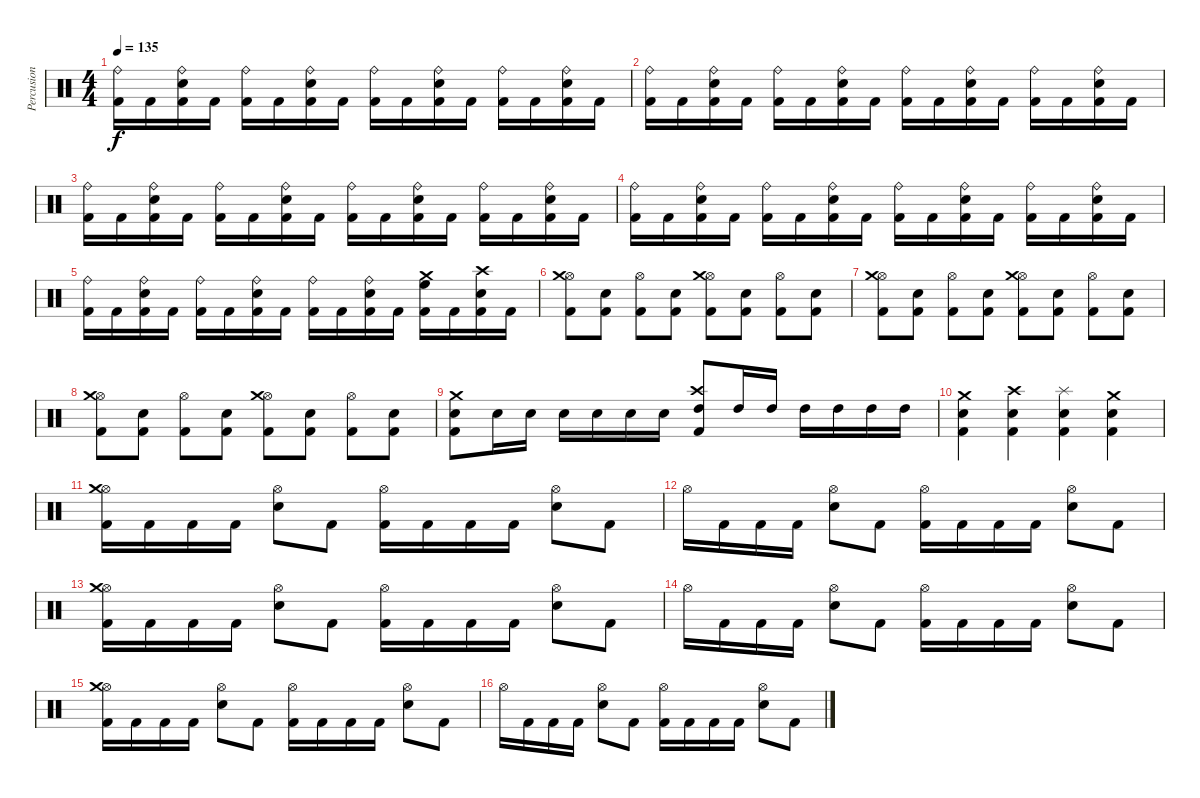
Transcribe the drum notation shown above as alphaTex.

\track ("Percusion" "Percusion") {instrument percussion}
\staff {score}
\articulation defaults
\ts (4 4)
\tempo 135
\clef neutral
\ks c
("Ride (bell)" "Kick (hit) 2").16{dy f} "Kick (hit) 2".16 ("Ride (bell)" "Snare (hit) 2" "Kick (hit) 2").16 "Kick (hit) 2".16 ("Ride (bell)" "Kick (hit) 2").16 "Kick (hit) 2".16 ("Ride (bell)" "Snare (hit) 2" "Kick (hit) 2").16 "Kick (hit) 2".16 ("Ride (bell)" "Kick (hit) 2").16 "Kick (hit) 2".16 ("Ride (bell)" "Snare (hit) 2" "Kick (hit) 2").16 "Kick (hit) 2".16 ("Ride (bell)" "Kick (hit) 2").16 "Kick (hit) 2".16 ("Ride (bell)" "Snare (hit) 2" "Kick (hit) 2").16 "Kick (hit) 2".16 |
("Ride (bell)" "Kick (hit) 2").16 "Kick (hit) 2".16 ("Ride (bell)" "Snare (hit) 2" "Kick (hit) 2").16 "Kick (hit) 2".16 ("Ride (bell)" "Kick (hit) 2").16 "Kick (hit) 2".16 ("Ride (bell)" "Snare (hit) 2" "Kick (hit) 2").16 "Kick (hit) 2".16 ("Ride (bell)" "Kick (hit) 2").16 "Kick (hit) 2".16 ("Ride (bell)" "Snare (hit) 2" "Kick (hit) 2").16 "Kick (hit) 2".16 ("Ride (bell)" "Kick (hit) 2").16 "Kick (hit) 2".16 ("Ride (bell)" "Snare (hit) 2" "Kick (hit) 2").16 "Kick (hit) 2".16 |
("Ride (bell)" "Kick (hit) 2").16 "Kick (hit) 2".16 ("Ride (bell)" "Snare (hit) 2" "Kick (hit) 2").16 "Kick (hit) 2".16 ("Ride (bell)" "Kick (hit) 2").16 "Kick (hit) 2".16 ("Ride (bell)" "Snare (hit) 2" "Kick (hit) 2").16 "Kick (hit) 2".16 ("Ride (bell)" "Kick (hit) 2").16 "Kick (hit) 2".16 ("Ride (bell)" "Snare (hit) 2" "Kick (hit) 2").16 "Kick (hit) 2".16 ("Ride (bell)" "Kick (hit) 2").16 "Kick (hit) 2".16 ("Ride (bell)" "Snare (hit) 2" "Kick (hit) 2").16 "Kick (hit) 2".16 |
("Ride (bell)" "Kick (hit) 2").16 "Kick (hit) 2".16 ("Ride (bell)" "Snare (hit) 2" "Kick (hit) 2").16 "Kick (hit) 2".16 ("Ride (bell)" "Kick (hit) 2").16 "Kick (hit) 2".16 ("Ride (bell)" "Snare (hit) 2" "Kick (hit) 2").16 "Kick (hit) 2".16 ("Ride (bell)" "Kick (hit) 2").16 "Kick (hit) 2".16 ("Ride (bell)" "Snare (hit) 2" "Kick (hit) 2").16 "Kick (hit) 2".16 ("Ride (bell)" "Kick (hit) 2").16 "Kick (hit) 2".16 ("Ride (bell)" "Snare (hit) 2" "Kick (hit) 2").16 "Kick (hit) 2".16 |
("Ride (bell)" "Kick (hit) 2").16 "Kick (hit) 2".16 ("Ride (bell)" "Snare (hit) 2" "Kick (hit) 2").16 "Kick (hit) 2".16 ("Ride (bell)" "Kick (hit) 2").16 "Kick (hit) 2".16 ("Ride (bell)" "Snare (hit) 2" "Kick (hit) 2").16 "Kick (hit) 2".16 ("Ride (bell)" "Kick (hit) 2").16 "Kick (hit) 2".16 ("Ride (bell)" "Snare (hit) 2" "Kick (hit) 2").16 "Kick (hit) 2".16 ("Crash medium (hit)" "High Floor Tom (hit)" "Kick (hit) 2").16 "Kick (hit) 2".16 ("Crash high (hit)" "Snare (hit) 2" "Kick (hit) 2").16 "Kick (hit) 2".16 |
("Hi-Hat (open)" "Crash medium (hit)" "Kick (hit) 2").8 ("Snare (hit) 2" "Kick (hit) 2").8 ("Hi-Hat (open)" "Kick (hit) 2").8 ("Snare (hit) 2" "Kick (hit) 2").8 ("Hi-Hat (open)" "Crash medium (hit)" "Kick (hit) 2").8 ("Snare (hit) 2" "Kick (hit) 2").8 ("Hi-Hat (open)" "Kick (hit) 2").8 ("Snare (hit) 2" "Kick (hit) 2").8 |
("Hi-Hat (open)" "Crash medium (hit)" "Kick (hit) 2").8 ("Snare (hit) 2" "Kick (hit) 2").8 ("Hi-Hat (open)" "Kick (hit) 2").8 ("Snare (hit) 2" "Kick (hit) 2").8 ("Hi-Hat (open)" "Crash medium (hit)" "Kick (hit) 2").8 ("Snare (hit) 2" "Kick (hit) 2").8 ("Hi-Hat (open)" "Kick (hit) 2").8 ("Snare (hit) 2" "Kick (hit) 2").8 |
("Hi-Hat (open)" "Crash medium (hit)" "Kick (hit) 2").8 ("Snare (hit) 2" "Kick (hit) 2").8 ("Hi-Hat (open)" "Kick (hit) 2").8 ("Snare (hit) 2" "Kick (hit) 2").8 ("Hi-Hat (open)" "Crash medium (hit)" "Kick (hit) 2").8 ("Snare (hit) 2" "Kick (hit) 2").8 ("Hi-Hat (open)" "Kick (hit) 2").8 ("Snare (hit) 2" "Kick (hit) 2").8 |
("Crash medium (hit)" "Snare (hit) 2" "Kick (hit) 2").8 "Snare (hit) 2".16 "Snare (hit) 2".16 "Snare (hit) 2".16 "Snare (hit) 2".16 "Snare (hit) 2".16 "Snare (hit) 2".16 ("Crash high (hit)" "High Tom (hit)" "Kick (hit) 2").8 "High Tom (hit)".16 "High Tom (hit)".16 "High Tom (hit)".16 "High Tom (hit)".16 "High Tom (hit)".16 "High Tom (hit)".16 |
("Crash medium (hit)" "Snare (hit) 2" "Kick (hit) 2").4 ("Crash high (hit)" "Snare (hit) 2" "Kick (hit) 2").4 ("Splash (hit)" "Snare (hit) 2" "Kick (hit) 2").4 ("Crash medium (hit)" "Snare (hit) 2" "Kick (hit) 2").4 |
("Hi-Hat (open)" "Crash medium (hit)" "Kick (hit) 2").16 "Kick (hit) 2".16 "Kick (hit) 2".16 "Kick (hit) 2".16 ("Hi-Hat (open)" "Electric Snare (hit)").8 "Kick (hit) 2".8 ("Hi-Hat (open)" "Kick (hit) 2").16 "Kick (hit) 2".16 "Kick (hit) 2".16 "Kick (hit) 2".16 ("Hi-Hat (open)" "Electric Snare (hit)").8 "Kick (hit) 2".8 |
"Hi-Hat (open)".16 "Kick (hit) 2".16 "Kick (hit) 2".16 "Kick (hit) 2".16 ("Hi-Hat (open)" "Electric Snare (hit)").8 "Kick (hit) 2".8 ("Hi-Hat (open)" "Kick (hit) 2").16 "Kick (hit) 2".16 "Kick (hit) 2".16 "Kick (hit) 2".16 ("Hi-Hat (open)" "Electric Snare (hit)").8 "Kick (hit) 2".8 |
("Hi-Hat (open)" "Crash medium (hit)" "Kick (hit) 2").16 "Kick (hit) 2".16 "Kick (hit) 2".16 "Kick (hit) 2".16 ("Hi-Hat (open)" "Electric Snare (hit)").8 "Kick (hit) 2".8 ("Hi-Hat (open)" "Kick (hit) 2").16 "Kick (hit) 2".16 "Kick (hit) 2".16 "Kick (hit) 2".16 ("Hi-Hat (open)" "Electric Snare (hit)").8 "Kick (hit) 2".8 |
"Hi-Hat (open)".16 "Kick (hit) 2".16 "Kick (hit) 2".16 "Kick (hit) 2".16 ("Hi-Hat (open)" "Electric Snare (hit)").8 "Kick (hit) 2".8 ("Hi-Hat (open)" "Kick (hit) 2").16 "Kick (hit) 2".16 "Kick (hit) 2".16 "Kick (hit) 2".16 ("Hi-Hat (open)" "Electric Snare (hit)").8 "Kick (hit) 2".8 |
("Hi-Hat (open)" "Crash medium (hit)" "Kick (hit) 2").16 "Kick (hit) 2".16 "Kick (hit) 2".16 "Kick (hit) 2".16 ("Hi-Hat (open)" "Electric Snare (hit)").8 "Kick (hit) 2".8 ("Hi-Hat (open)" "Kick (hit) 2").16 "Kick (hit) 2".16 "Kick (hit) 2".16 "Kick (hit) 2".16 ("Hi-Hat (open)" "Electric Snare (hit)").8 "Kick (hit) 2".8 |
"Hi-Hat (open)".16 "Kick (hit) 2".16 "Kick (hit) 2".16 "Kick (hit) 2".16 ("Hi-Hat (open)" "Electric Snare (hit)").8 "Kick (hit) 2".8 ("Hi-Hat (open)" "Kick (hit) 2").16 "Kick (hit) 2".16 "Kick (hit) 2".16 "Kick (hit) 2".16 ("Hi-Hat (open)" "Electric Snare (hit)").8 "Kick (hit) 2".8
